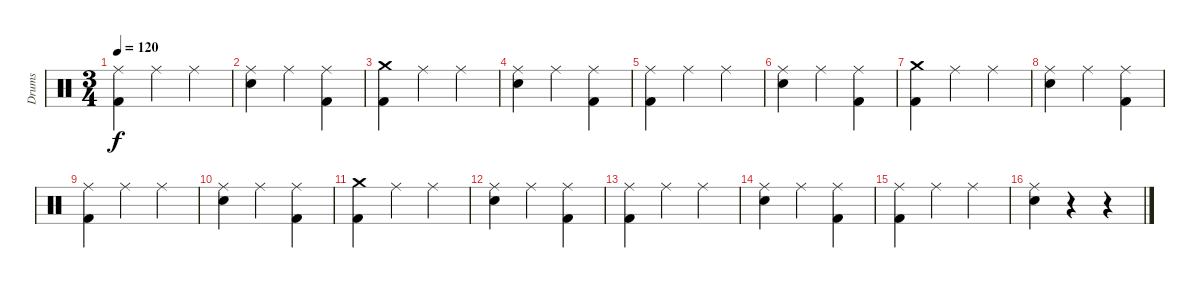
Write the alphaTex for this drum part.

\track ("Drums" "Drums") {instrument percussion}
\staff {score}
\articulation defaults
\ts (3 4)
\tempo 120
\clef neutral
\ks c
("Ride (middle)" "Kick (hit) 2").4{dy f} "Ride (middle)".4 "Ride (middle)".4 |
("Ride (middle)" "Electric Snare (hit)").4 "Ride (middle)".4 ("Ride (middle)" "Kick (hit) 2").4 |
("Crash medium (hit)" "Kick (hit) 2").4 "Ride (middle)".4 "Ride (middle)".4 |
("Ride (middle)" "Electric Snare (hit)").4 "Ride (middle)".4 ("Ride (middle)" "Kick (hit) 2").4 |
("Ride (middle)" "Kick (hit) 2").4 "Ride (middle)".4 "Ride (middle)".4 |
("Ride (middle)" "Electric Snare (hit)").4 "Ride (middle)".4 ("Ride (middle)" "Kick (hit) 2").4 |
("Crash medium (hit)" "Kick (hit) 2").4 "Ride (middle)".4 "Ride (middle)".4 |
("Ride (middle)" "Electric Snare (hit)").4 "Ride (middle)".4 ("Ride (middle)" "Kick (hit) 2").4 |
("Ride (middle)" "Kick (hit) 2").4 "Ride (middle)".4 "Ride (middle)".4 |
("Ride (middle)" "Electric Snare (hit)").4 "Ride (middle)".4 ("Ride (middle)" "Kick (hit) 2").4 |
("Crash medium (hit)" "Kick (hit) 2").4 "Ride (middle)".4 "Ride (middle)".4 |
("Ride (middle)" "Electric Snare (hit)").4 "Ride (middle)".4 ("Ride (middle)" "Kick (hit) 2").4 |
("Ride (middle)" "Kick (hit) 2").4 "Ride (middle)".4 "Ride (middle)".4 |
("Ride (middle)" "Electric Snare (hit)").4 "Ride (middle)".4 ("Ride (middle)" "Kick (hit) 2").4 |
("Ride (middle)" "Kick (hit) 2").4 "Ride (middle)".4 "Ride (middle)".4 |
("Ride (middle)" "Electric Snare (hit)").4 r.4 r.4
